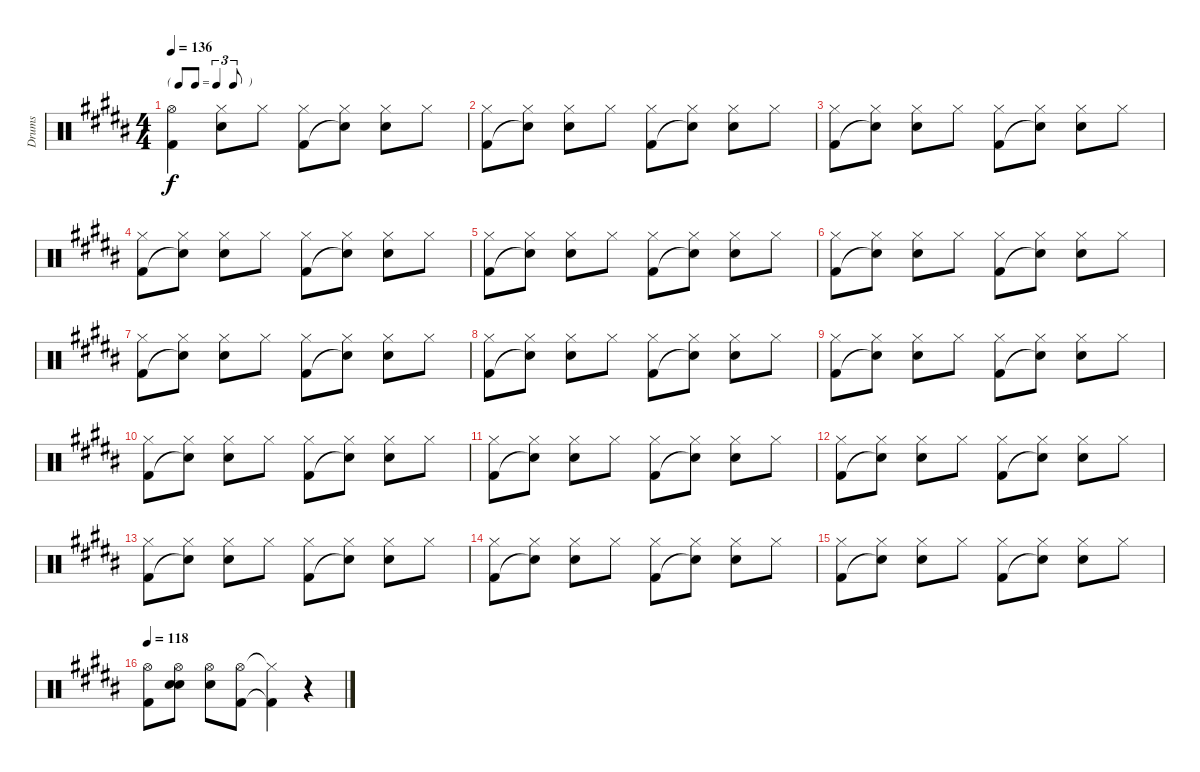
\track ("Drums" "Drums") {instrument percussion}
\staff {score}
\articulation defaults
\ts (4 4)
\tf triplet8th
\tempo 136
\clef neutral
\ks b
("Hi-Hat (open)" "Kick (hit) 2").4{dy f} ("Hi-Hat (closed)" "Snare (hit) 2").8 "Hi-Hat (closed)".8 ("Hi-Hat (closed)" "Kick (hit) 2").8 ("Hi-Hat (closed)" "Snare (hit)"{t}).8 ("Hi-Hat (closed)" "Snare (hit) 2").8 "Hi-Hat (closed)".8 |
("Hi-Hat (closed)" "Kick (hit) 2").8 ("Hi-Hat (closed)" "Snare (hit)"{t}).8 ("Hi-Hat (closed)" "Snare (hit) 2").8 "Hi-Hat (closed)".8 ("Hi-Hat (closed)" "Kick (hit) 2").8 ("Hi-Hat (closed)" "Snare (hit)"{t}).8 ("Hi-Hat (closed)" "Snare (hit) 2").8 "Hi-Hat (closed)".8 |
("Hi-Hat (closed)" "Kick (hit) 2").8 ("Hi-Hat (closed)" "Snare (hit)"{t}).8 ("Hi-Hat (closed)" "Snare (hit) 2").8 "Hi-Hat (closed)".8 ("Hi-Hat (closed)" "Kick (hit) 2").8 ("Hi-Hat (closed)" "Snare (hit)"{t}).8 ("Hi-Hat (closed)" "Snare (hit) 2").8 "Hi-Hat (closed)".8 |
("Hi-Hat (closed)" "Kick (hit) 2").8 ("Hi-Hat (closed)" "Snare (hit)"{t}).8 ("Hi-Hat (closed)" "Snare (hit) 2").8 "Hi-Hat (closed)".8 ("Hi-Hat (closed)" "Kick (hit) 2").8 ("Hi-Hat (closed)" "Snare (hit)"{t}).8 ("Hi-Hat (closed)" "Snare (hit) 2").8 "Hi-Hat (closed)".8 |
("Hi-Hat (closed)" "Kick (hit) 2").8 ("Hi-Hat (closed)" "Snare (hit)"{t}).8 ("Hi-Hat (closed)" "Snare (hit) 2").8 "Hi-Hat (closed)".8 ("Hi-Hat (closed)" "Kick (hit) 2").8 ("Hi-Hat (closed)" "Snare (hit)"{t}).8 ("Hi-Hat (closed)" "Snare (hit) 2").8 "Hi-Hat (closed)".8 |
("Hi-Hat (closed)" "Kick (hit) 2").8 ("Hi-Hat (closed)" "Snare (hit)"{t}).8 ("Hi-Hat (closed)" "Snare (hit) 2").8 "Hi-Hat (closed)".8 ("Hi-Hat (closed)" "Kick (hit) 2").8 ("Hi-Hat (closed)" "Snare (hit)"{t}).8 ("Hi-Hat (closed)" "Snare (hit) 2").8 "Hi-Hat (closed)".8 |
("Hi-Hat (closed)" "Kick (hit) 2").8 ("Hi-Hat (closed)" "Snare (hit)"{t}).8 ("Hi-Hat (closed)" "Snare (hit) 2").8 "Hi-Hat (closed)".8 ("Hi-Hat (closed)" "Kick (hit) 2").8 ("Hi-Hat (closed)" "Snare (hit)"{t}).8 ("Hi-Hat (closed)" "Snare (hit) 2").8 "Hi-Hat (closed)".8 |
("Hi-Hat (closed)" "Kick (hit) 2").8 ("Hi-Hat (closed)" "Snare (hit)"{t}).8 ("Hi-Hat (closed)" "Snare (hit) 2").8 "Hi-Hat (closed)".8 ("Hi-Hat (closed)" "Kick (hit) 2").8 ("Hi-Hat (closed)" "Snare (hit)"{t}).8 ("Hi-Hat (closed)" "Snare (hit) 2").8 "Hi-Hat (closed)".8 |
("Hi-Hat (closed)" "Kick (hit) 2").8 ("Hi-Hat (closed)" "Snare (hit)"{t}).8 ("Hi-Hat (closed)" "Snare (hit) 2").8 "Hi-Hat (closed)".8 ("Hi-Hat (closed)" "Kick (hit) 2").8 ("Hi-Hat (closed)" "Snare (hit)"{t}).8 ("Hi-Hat (closed)" "Snare (hit) 2").8 "Hi-Hat (closed)".8 |
("Hi-Hat (closed)" "Kick (hit) 2").8 ("Hi-Hat (closed)" "Snare (hit)"{t}).8 ("Hi-Hat (closed)" "Snare (hit) 2").8 "Hi-Hat (closed)".8 ("Hi-Hat (closed)" "Kick (hit) 2").8 ("Hi-Hat (closed)" "Snare (hit)"{t}).8 ("Hi-Hat (closed)" "Snare (hit) 2").8 "Hi-Hat (closed)".8 |
("Hi-Hat (closed)" "Kick (hit) 2").8 ("Hi-Hat (closed)" "Snare (hit)"{t}).8 ("Hi-Hat (closed)" "Snare (hit) 2").8 "Hi-Hat (closed)".8 ("Hi-Hat (closed)" "Kick (hit) 2").8 ("Hi-Hat (closed)" "Snare (hit)"{t}).8 ("Hi-Hat (closed)" "Snare (hit) 2").8 "Hi-Hat (closed)".8 |
("Hi-Hat (closed)" "Kick (hit) 2").8 ("Hi-Hat (closed)" "Snare (hit)"{t}).8 ("Hi-Hat (closed)" "Snare (hit) 2").8 "Hi-Hat (closed)".8 ("Hi-Hat (closed)" "Kick (hit) 2").8 ("Hi-Hat (closed)" "Snare (hit)"{t}).8 ("Hi-Hat (closed)" "Snare (hit) 2").8 "Hi-Hat (closed)".8 |
("Hi-Hat (closed)" "Kick (hit) 2").8 ("Hi-Hat (closed)" "Snare (hit)"{t}).8 ("Hi-Hat (closed)" "Snare (hit) 2").8 "Hi-Hat (closed)".8 ("Hi-Hat (closed)" "Kick (hit) 2").8 ("Hi-Hat (closed)" "Snare (hit)"{t}).8 ("Hi-Hat (closed)" "Snare (hit) 2").8 "Hi-Hat (closed)".8 |
("Hi-Hat (closed)" "Kick (hit) 2").8 ("Hi-Hat (closed)" "Snare (hit)"{t}).8 ("Hi-Hat (closed)" "Snare (hit) 2").8 "Hi-Hat (closed)".8 ("Hi-Hat (closed)" "Kick (hit) 2").8 ("Hi-Hat (closed)" "Snare (hit)"{t}).8 ("Hi-Hat (closed)" "Snare (hit) 2").8 "Hi-Hat (closed)".8 |
("Hi-Hat (closed)" "Kick (hit) 2").8 ("Hi-Hat (closed)" "Snare (hit)"{t}).8 ("Hi-Hat (closed)" "Snare (hit) 2").8 "Hi-Hat (closed)".8 ("Hi-Hat (closed)" "Kick (hit) 2").8 ("Hi-Hat (closed)" "Snare (hit)"{t}).8 ("Hi-Hat (closed)" "Snare (hit) 2").8 "Hi-Hat (closed)".8 |
\tempo 118
("Hi-Hat (open)" "Kick (hit) 2").8 ("Hi-Hat (open)" "Snare (hit) 2" "Snare (hit)").8 ("Hi-Hat (open)" "Snare (hit) 2").8 ("Hi-Hat (open)" "Kick (hit) 2").8 ("Hi-Hat (closed)"{t} "Kick (hit) 2"{t}).4 r.4
